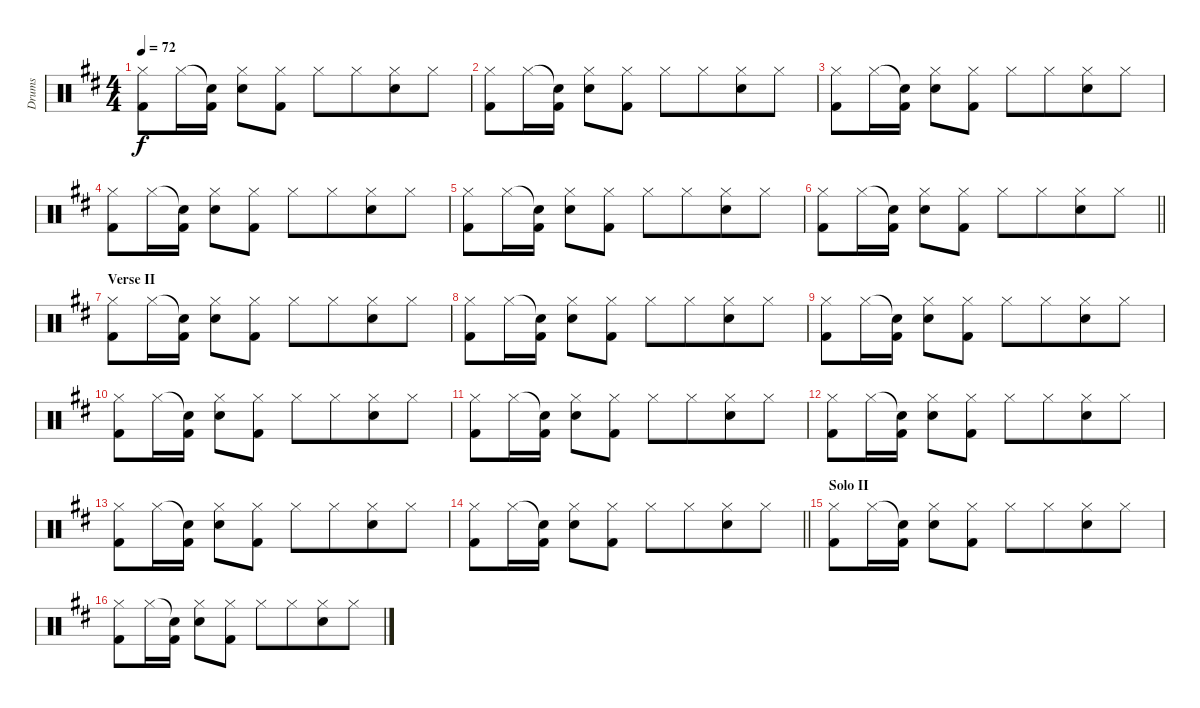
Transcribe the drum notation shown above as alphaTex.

\track ("Drums" "Drums") {instrument percussion}
\staff {score}
\articulation defaults
\ts (4 4)
\tempo 72
\clef neutral
\ks d
("Hi-Hat (closed)" "Kick (hit) 2").8{dy f} "Hi-Hat (closed)".16 ("Snare (hit)"{t} "Kick (hit) 2").16 ("Hi-Hat (closed)" "Snare (hit) 2").8 ("Hi-Hat (closed)" "Kick (hit) 2").8 "Hi-Hat (closed)".8 "Hi-Hat (closed)".8{beam merge} ("Hi-Hat (closed)" "Snare (hit) 2").8 "Hi-Hat (closed)".8 |
("Hi-Hat (closed)" "Kick (hit) 2").8 "Hi-Hat (closed)".16 ("Snare (hit)"{t} "Kick (hit) 2").16 ("Hi-Hat (closed)" "Snare (hit) 2").8 ("Hi-Hat (closed)" "Kick (hit) 2").8 "Hi-Hat (closed)".8 "Hi-Hat (closed)".8{beam merge} ("Hi-Hat (closed)" "Snare (hit) 2").8 "Hi-Hat (closed)".8 |
("Hi-Hat (closed)" "Kick (hit) 2").8 "Hi-Hat (closed)".16 ("Snare (hit)"{t} "Kick (hit) 2").16 ("Hi-Hat (closed)" "Snare (hit) 2").8 ("Hi-Hat (closed)" "Kick (hit) 2").8 "Hi-Hat (closed)".8 "Hi-Hat (closed)".8{beam merge} ("Hi-Hat (closed)" "Snare (hit) 2").8 "Hi-Hat (closed)".8 |
("Hi-Hat (closed)" "Kick (hit) 2").8 "Hi-Hat (closed)".16 ("Snare (hit)"{t} "Kick (hit) 2").16 ("Hi-Hat (closed)" "Snare (hit) 2").8 ("Hi-Hat (closed)" "Kick (hit) 2").8 "Hi-Hat (closed)".8 "Hi-Hat (closed)".8{beam merge} ("Hi-Hat (closed)" "Snare (hit) 2").8 "Hi-Hat (closed)".8 |
("Hi-Hat (closed)" "Kick (hit) 2").8 "Hi-Hat (closed)".16 ("Snare (hit)"{t} "Kick (hit) 2").16 ("Hi-Hat (closed)" "Snare (hit) 2").8 ("Hi-Hat (closed)" "Kick (hit) 2").8 "Hi-Hat (closed)".8 "Hi-Hat (closed)".8{beam merge} ("Hi-Hat (closed)" "Snare (hit) 2").8 "Hi-Hat (closed)".8 |
\barLineRight lightlight
("Hi-Hat (closed)" "Kick (hit) 2").8 "Hi-Hat (closed)".16 ("Snare (hit)"{t} "Kick (hit) 2").16 ("Hi-Hat (closed)" "Snare (hit) 2").8 ("Hi-Hat (closed)" "Kick (hit) 2").8 "Hi-Hat (closed)".8 "Hi-Hat (closed)".8{beam merge} ("Hi-Hat (closed)" "Snare (hit) 2").8 "Hi-Hat (closed)".8 |
\section ("" "Verse II")
("Hi-Hat (closed)" "Kick (hit) 2").8 "Hi-Hat (closed)".16 ("Snare (hit)"{t} "Kick (hit) 2").16 ("Hi-Hat (closed)" "Snare (hit) 2").8 ("Hi-Hat (closed)" "Kick (hit) 2").8 "Hi-Hat (closed)".8 "Hi-Hat (closed)".8{beam merge} ("Hi-Hat (closed)" "Snare (hit) 2").8 "Hi-Hat (closed)".8 |
("Hi-Hat (closed)" "Kick (hit) 2").8 "Hi-Hat (closed)".16 ("Snare (hit)"{t} "Kick (hit) 2").16 ("Hi-Hat (closed)" "Snare (hit) 2").8 ("Hi-Hat (closed)" "Kick (hit) 2").8 "Hi-Hat (closed)".8 "Hi-Hat (closed)".8{beam merge} ("Hi-Hat (closed)" "Snare (hit) 2").8 "Hi-Hat (closed)".8 |
("Hi-Hat (closed)" "Kick (hit) 2").8 "Hi-Hat (closed)".16 ("Snare (hit)"{t} "Kick (hit) 2").16 ("Hi-Hat (closed)" "Snare (hit) 2").8 ("Hi-Hat (closed)" "Kick (hit) 2").8 "Hi-Hat (closed)".8 "Hi-Hat (closed)".8{beam merge} ("Hi-Hat (closed)" "Snare (hit) 2").8 "Hi-Hat (closed)".8 |
("Hi-Hat (closed)" "Kick (hit) 2").8 "Hi-Hat (closed)".16 ("Snare (hit)"{t} "Kick (hit) 2").16 ("Hi-Hat (closed)" "Snare (hit) 2").8 ("Hi-Hat (closed)" "Kick (hit) 2").8 "Hi-Hat (closed)".8 "Hi-Hat (closed)".8{beam merge} ("Hi-Hat (closed)" "Snare (hit) 2").8 "Hi-Hat (closed)".8 |
("Hi-Hat (closed)" "Kick (hit) 2").8 "Hi-Hat (closed)".16 ("Snare (hit)"{t} "Kick (hit) 2").16 ("Hi-Hat (closed)" "Snare (hit) 2").8 ("Hi-Hat (closed)" "Kick (hit) 2").8 "Hi-Hat (closed)".8 "Hi-Hat (closed)".8{beam merge} ("Hi-Hat (closed)" "Snare (hit) 2").8 "Hi-Hat (closed)".8 |
("Hi-Hat (closed)" "Kick (hit) 2").8 "Hi-Hat (closed)".16 ("Snare (hit)"{t} "Kick (hit) 2").16 ("Hi-Hat (closed)" "Snare (hit) 2").8 ("Hi-Hat (closed)" "Kick (hit) 2").8 "Hi-Hat (closed)".8 "Hi-Hat (closed)".8{beam merge} ("Hi-Hat (closed)" "Snare (hit) 2").8 "Hi-Hat (closed)".8 |
("Hi-Hat (closed)" "Kick (hit) 2").8 "Hi-Hat (closed)".16 ("Snare (hit)"{t} "Kick (hit) 2").16 ("Hi-Hat (closed)" "Snare (hit) 2").8 ("Hi-Hat (closed)" "Kick (hit) 2").8 "Hi-Hat (closed)".8 "Hi-Hat (closed)".8{beam merge} ("Hi-Hat (closed)" "Snare (hit) 2").8 "Hi-Hat (closed)".8 |
\barLineRight lightlight
("Hi-Hat (closed)" "Kick (hit) 2").8 "Hi-Hat (closed)".16 ("Snare (hit)"{t} "Kick (hit) 2").16 ("Hi-Hat (closed)" "Snare (hit) 2").8 ("Hi-Hat (closed)" "Kick (hit) 2").8 "Hi-Hat (closed)".8 "Hi-Hat (closed)".8{beam merge} ("Hi-Hat (closed)" "Snare (hit) 2").8 "Hi-Hat (closed)".8 |
\section ("" "Solo II")
("Hi-Hat (closed)" "Kick (hit) 2").8 "Hi-Hat (closed)".16 ("Snare (hit)"{t} "Kick (hit) 2").16 ("Hi-Hat (closed)" "Snare (hit) 2").8 ("Hi-Hat (closed)" "Kick (hit) 2").8 "Hi-Hat (closed)".8 "Hi-Hat (closed)".8{beam merge} ("Hi-Hat (closed)" "Snare (hit) 2").8 "Hi-Hat (closed)".8 |
("Hi-Hat (closed)" "Kick (hit) 2").8 "Hi-Hat (closed)".16 ("Snare (hit)"{t} "Kick (hit) 2").16 ("Hi-Hat (closed)" "Snare (hit) 2").8 ("Hi-Hat (closed)" "Kick (hit) 2").8 "Hi-Hat (closed)".8 "Hi-Hat (closed)".8{beam merge} ("Hi-Hat (closed)" "Snare (hit) 2").8 "Hi-Hat (closed)".8
